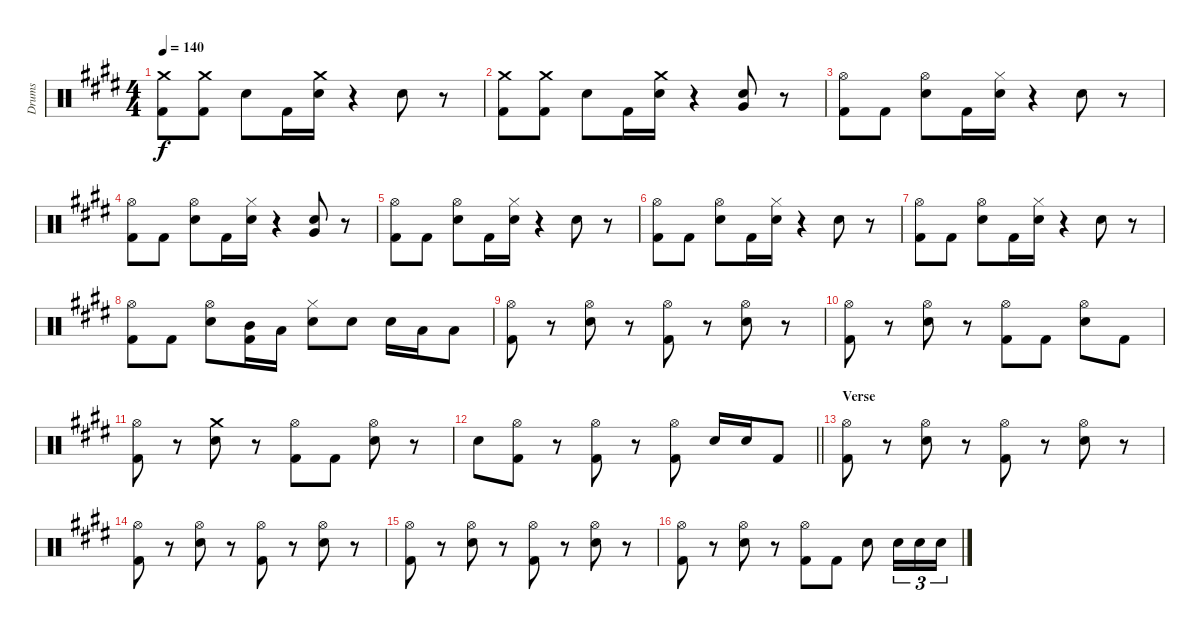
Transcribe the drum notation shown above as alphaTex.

\track ("Drums" "Drums") {instrument percussion}
\staff {score}
\articulation defaults
\ts (4 4)
\tempo 140
\clef neutral
\ks e
("Crash medium (hit)" "Kick (hit) 2").8{dy f} ("Crash medium (hit)" "Kick (hit) 2").8 "Electric Snare (hit)".8 "Kick (hit) 2".16 ("Crash medium (hit)" "Electric Snare (hit)").16 r.4 "Electric Snare (hit)".8 r.8 |
\ks c#minor
("Crash medium (hit)" "Kick (hit) 2").8 ("Crash medium (hit)" "Kick (hit) 2").8 "Electric Snare (hit)".8 "Kick (hit) 2".16 ("Crash medium (hit)" "Electric Snare (hit)").16 r.4 ("Electric Snare (hit)" "Very Low Tom (hit)").8 r.8 |
("Hi-Hat (open)" "Kick (hit) 2").8 "Kick (hit) 2".8 ("Hi-Hat (open)" "Electric Snare (hit)").8 "Kick (hit) 2".16 ("Hi-Hat (closed)" "Electric Snare (hit)").16 r.4 "Electric Snare (hit)".8 r.8 |
("Hi-Hat (open)" "Kick (hit) 2").8 "Kick (hit) 2".8 ("Hi-Hat (open)" "Electric Snare (hit)").8 "Kick (hit) 2".16 ("Hi-Hat (closed)" "Electric Snare (hit)").16 r.4 ("Electric Snare (hit)" "Very Low Tom (hit)").8 r.8 |
\ks e
("Hi-Hat (open)" "Kick (hit) 2").8 "Kick (hit) 2".8 ("Hi-Hat (open)" "Electric Snare (hit)").8 "Kick (hit) 2".16 ("Hi-Hat (closed)" "Electric Snare (hit)").16 r.4 "Electric Snare (hit)".8 r.8 |
\ks c#minor
("Hi-Hat (open)" "Kick (hit) 2").8 "Kick (hit) 2".8 ("Hi-Hat (open)" "Electric Snare (hit)").8 "Kick (hit) 2".16 ("Hi-Hat (closed)" "Electric Snare (hit)").16 r.4 "Electric Snare (hit)".8 r.8 |
\ks e
("Hi-Hat (open)" "Kick (hit) 2").8 "Kick (hit) 2".8 ("Hi-Hat (open)" "Electric Snare (hit)").8 "Kick (hit) 2".16 ("Hi-Hat (closed)" "Electric Snare (hit)").16 r.4 "Electric Snare (hit)".8 r.8 |
\ks c#minor
("Hi-Hat (open)" "Kick (hit) 2").8 "Kick (hit) 2".8 ("Hi-Hat (open)" "Electric Snare (hit)").8 ("Mid Tom (hit)" "Kick (hit) 2").16 "Low Tom (hit)".16 ("Hi-Hat (closed)" "Electric Snare (hit)").8 "Electric Snare (hit)".8 "Electric Snare (hit)".16 "Low Tom (hit)".16 "Low Tom (hit)".8 |
\ks e
("Hi-Hat (open)" "Kick (hit) 2").8 r.8 ("Hi-Hat (open)" "Electric Snare (hit)").8 r.8 ("Hi-Hat (open)" "Kick (hit) 2").8 r.8 ("Hi-Hat (open)" "Electric Snare (hit)").8 r.8 |
\ks c#minor
("Hi-Hat (open)" "Kick (hit) 2").8 r.8 ("Hi-Hat (open)" "Electric Snare (hit)").8 r.8 ("Hi-Hat (open)" "Kick (hit) 2").8 "Kick (hit) 2".8 ("Hi-Hat (open)" "Electric Snare (hit)").8 "Kick (hit) 2".8 |
\ks e
("Hi-Hat (open)" "Kick (hit) 2").8 r.8 ("Crash medium (hit)" "Electric Snare (hit)").8 r.8 ("Hi-Hat (open)" "Kick (hit) 2").8 "Kick (hit) 2".8 ("Hi-Hat (open)" "Electric Snare (hit)").8 r.8 |
\barLineRight lightlight
\ks c#minor "Electric Snare (hit)".8
("Hi-Hat (open)" "Kick (hit) 2").8 r.8 ("Hi-Hat (open)" "Kick (hit) 2").8 r.8 ("Hi-Hat (open)" "Kick (hit) 2").8 "Electric Snare (hit)".16 "Electric Snare (hit)".16 "Kick (hit) 2".8 |
\section ("" "Verse")
("Hi-Hat (open)" "Kick (hit) 2").8 r.8 ("Hi-Hat (open)" "Electric Snare (hit)").8 r.8 ("Hi-Hat (open)" "Kick (hit) 2").8 r.8 ("Hi-Hat (open)" "Electric Snare (hit)").8 r.8 |
("Hi-Hat (open)" "Kick (hit) 2").8 r.8 ("Hi-Hat (open)" "Electric Snare (hit)").8 r.8 ("Hi-Hat (open)" "Kick (hit) 2").8 r.8 ("Hi-Hat (open)" "Electric Snare (hit)").8 r.8 |
("Hi-Hat (open)" "Kick (hit) 2").8 r.8 ("Hi-Hat (open)" "Electric Snare (hit)").8 r.8 ("Hi-Hat (open)" "Kick (hit) 2").8 r.8 ("Hi-Hat (open)" "Electric Snare (hit)").8 r.8 |
("Hi-Hat (open)" "Kick (hit) 2").8 r.8 ("Hi-Hat (open)" "Electric Snare (hit)").8 r.8 ("Hi-Hat (open)" "Kick (hit) 2").8 "Kick (hit) 2".8 "Electric Snare (hit)".8 "Electric Snare (hit)".16{tu (3 2)} "Electric Snare (hit)".16{tu (3 2)} "Electric Snare (hit)".16{tu (3 2)}
